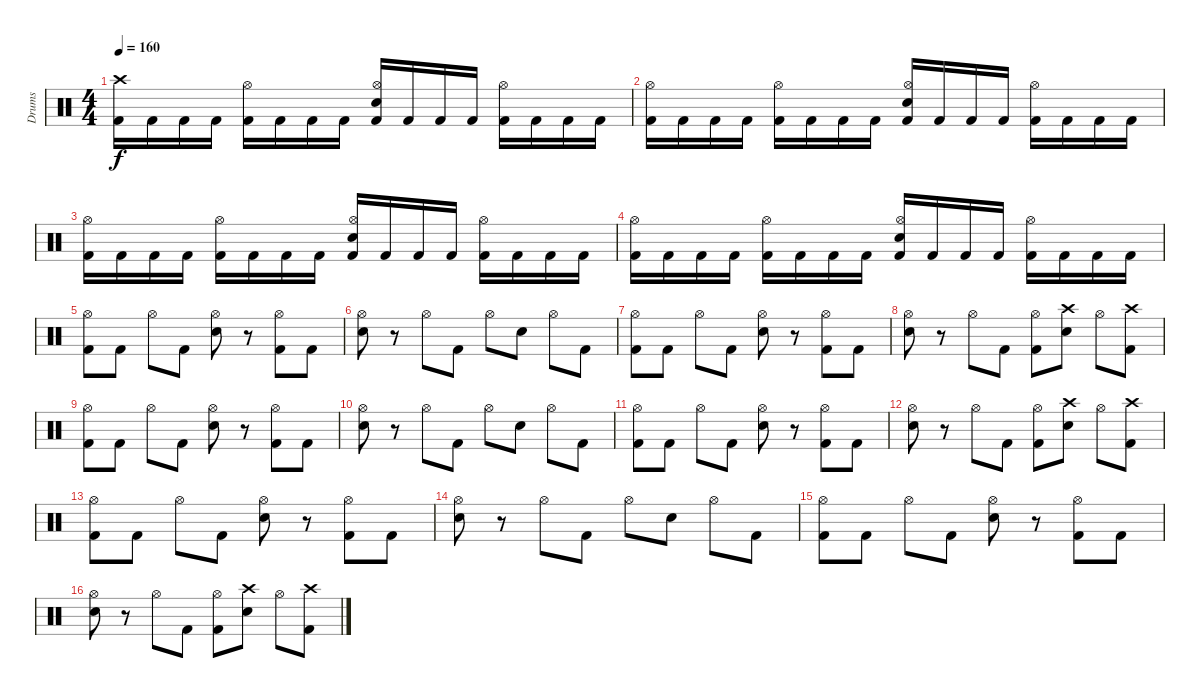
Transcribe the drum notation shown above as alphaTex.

\track ("Drums" "Drums") {instrument percussion}
\staff {score}
\articulation defaults
\ts (4 4)
\tempo 160
\clef neutral
\ks c
("Crash high (hit)" "Kick (hit) 2").16{dy f} "Kick (hit) 2".16 "Kick (hit) 2".16 "Kick (hit) 2".16 ("Hi-Hat (open)" "Kick (hit) 2").16 "Kick (hit) 2".16 "Kick (hit) 2".16 "Kick (hit) 2".16 ("Hi-Hat (open)" "Snare (hit) 2" "Kick (hit) 2").16 "Kick (hit) 2".16 "Kick (hit) 2".16 "Kick (hit) 2".16 ("Hi-Hat (open)" "Kick (hit) 2").16 "Kick (hit) 2".16 "Kick (hit) 2".16 "Kick (hit) 2".16 |
("Hi-Hat (open)" "Kick (hit) 2").16 "Kick (hit) 2".16 "Kick (hit) 2".16 "Kick (hit) 2".16 ("Hi-Hat (open)" "Kick (hit) 2").16 "Kick (hit) 2".16 "Kick (hit) 2".16 "Kick (hit) 2".16 ("Hi-Hat (open)" "Snare (hit) 2" "Kick (hit) 2").16 "Kick (hit) 2".16 "Kick (hit) 2".16 "Kick (hit) 2".16 ("Hi-Hat (open)" "Kick (hit) 2").16 "Kick (hit) 2".16 "Kick (hit) 2".16 "Kick (hit) 2".16 |
("Hi-Hat (open)" "Kick (hit) 2").16 "Kick (hit) 2".16 "Kick (hit) 2".16 "Kick (hit) 2".16 ("Hi-Hat (open)" "Kick (hit) 2").16 "Kick (hit) 2".16 "Kick (hit) 2".16 "Kick (hit) 2".16 ("Hi-Hat (open)" "Snare (hit) 2" "Kick (hit) 2").16 "Kick (hit) 2".16 "Kick (hit) 2".16 "Kick (hit) 2".16 ("Hi-Hat (open)" "Kick (hit) 2").16 "Kick (hit) 2".16 "Kick (hit) 2".16 "Kick (hit) 2".16 |
("Hi-Hat (open)" "Kick (hit) 2").16 "Kick (hit) 2".16 "Kick (hit) 2".16 "Kick (hit) 2".16 ("Hi-Hat (open)" "Kick (hit) 2").16 "Kick (hit) 2".16 "Kick (hit) 2".16 "Kick (hit) 2".16 ("Hi-Hat (open)" "Snare (hit) 2" "Kick (hit) 2").16 "Kick (hit) 2".16 "Kick (hit) 2".16 "Kick (hit) 2".16 ("Hi-Hat (open)" "Kick (hit) 2").16 "Kick (hit) 2".16 "Kick (hit) 2".16 "Kick (hit) 2".16 |
("Hi-Hat (open)" "Kick (hit) 2").8 "Kick (hit) 2".8 "Hi-Hat (open)".8 "Kick (hit) 2".8 ("Hi-Hat (open)" "Snare (hit) 2").8 r.8 ("Hi-Hat (open)" "Kick (hit) 2").8 "Kick (hit) 2".8 |
("Hi-Hat (open)" "Snare (hit) 2").8 r.8 "Hi-Hat (open)".8 "Kick (hit) 2".8 "Hi-Hat (open)".8 "Snare (hit) 2".8 "Hi-Hat (open)".8 "Kick (hit) 2".8 |
("Hi-Hat (open)" "Kick (hit) 2").8 "Kick (hit) 2".8 "Hi-Hat (open)".8 "Kick (hit) 2".8 ("Hi-Hat (open)" "Snare (hit) 2").8 r.8 ("Hi-Hat (open)" "Kick (hit) 2").8 "Kick (hit) 2".8 |
("Hi-Hat (open)" "Snare (hit) 2").8 r.8 "Hi-Hat (open)".8 "Kick (hit) 2".8 ("Hi-Hat (open)" "Kick (hit) 2").8 ("Crash high (hit)" "Snare (hit) 2").8 "Hi-Hat (open)".8 ("Crash high (hit)" "Kick (hit) 2").8 |
("Hi-Hat (open)" "Kick (hit) 2").8 "Kick (hit) 2".8 "Hi-Hat (open)".8 "Kick (hit) 2".8 ("Hi-Hat (open)" "Snare (hit) 2").8 r.8 ("Hi-Hat (open)" "Kick (hit) 2").8 "Kick (hit) 2".8 |
("Hi-Hat (open)" "Snare (hit) 2").8 r.8 "Hi-Hat (open)".8 "Kick (hit) 2".8 "Hi-Hat (open)".8 "Snare (hit) 2".8 "Hi-Hat (open)".8 "Kick (hit) 2".8 |
("Hi-Hat (open)" "Kick (hit) 2").8 "Kick (hit) 2".8 "Hi-Hat (open)".8 "Kick (hit) 2".8 ("Hi-Hat (open)" "Snare (hit) 2").8 r.8 ("Hi-Hat (open)" "Kick (hit) 2").8 "Kick (hit) 2".8 |
("Hi-Hat (open)" "Snare (hit) 2").8 r.8 "Hi-Hat (open)".8 "Kick (hit) 2".8 ("Hi-Hat (open)" "Kick (hit) 2").8 ("Crash high (hit)" "Snare (hit) 2").8 "Hi-Hat (open)".8 ("Crash high (hit)" "Kick (hit) 2").8 |
("Hi-Hat (open)" "Kick (hit) 2").8 "Kick (hit) 2".8 "Hi-Hat (open)".8 "Kick (hit) 2".8 ("Hi-Hat (open)" "Snare (hit) 2").8 r.8 ("Hi-Hat (open)" "Kick (hit) 2").8 "Kick (hit) 2".8 |
("Hi-Hat (open)" "Snare (hit) 2").8 r.8 "Hi-Hat (open)".8 "Kick (hit) 2".8 "Hi-Hat (open)".8 "Snare (hit) 2".8 "Hi-Hat (open)".8 "Kick (hit) 2".8 |
("Hi-Hat (open)" "Kick (hit) 2").8 "Kick (hit) 2".8 "Hi-Hat (open)".8 "Kick (hit) 2".8 ("Hi-Hat (open)" "Snare (hit) 2").8 r.8 ("Hi-Hat (open)" "Kick (hit) 2").8 "Kick (hit) 2".8 |
("Hi-Hat (open)" "Snare (hit) 2").8 r.8 "Hi-Hat (open)".8 "Kick (hit) 2".8 ("Hi-Hat (open)" "Kick (hit) 2").8 ("Crash high (hit)" "Snare (hit) 2").8 "Hi-Hat (open)".8 ("Crash high (hit)" "Kick (hit) 2").8
